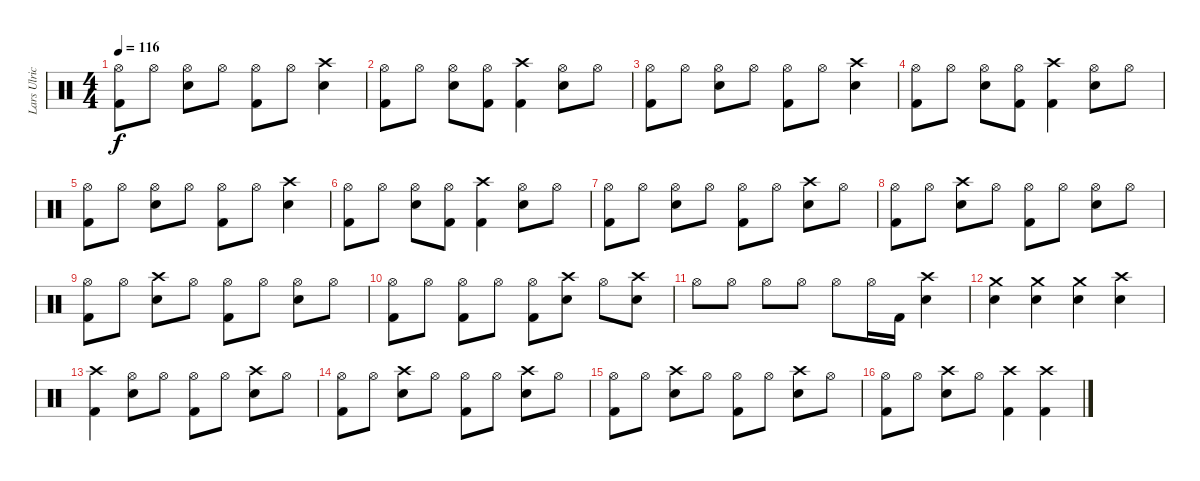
\track ("Lars Ulrich" "Lars Ulric") {instrument percussion}
\staff {score}
\articulation defaults
\ts (4 4)
\tempo 116
\clef neutral
\ks c
("Hi-Hat (open)" "Kick (hit) 2").8{dy f} "Hi-Hat (open)".8 ("Hi-Hat (open)" "Electric Snare (hit)").8 "Hi-Hat (open)".8 ("Hi-Hat (open)" "Kick (hit) 2").8 "Hi-Hat (open)".8 ("Crash high (hit)" "Electric Snare (hit)").4 |
("Hi-Hat (open)" "Kick (hit) 2").8 "Hi-Hat (open)".8 ("Hi-Hat (open)" "Electric Snare (hit)").8 ("Hi-Hat (open)" "Kick (hit) 2").8 ("Crash high (hit)" "Kick (hit) 2").4 ("Hi-Hat (open)" "Electric Snare (hit)").8 "Hi-Hat (open)".8 |
("Hi-Hat (open)" "Kick (hit) 2").8 "Hi-Hat (open)".8 ("Hi-Hat (open)" "Electric Snare (hit)").8 "Hi-Hat (open)".8 ("Hi-Hat (open)" "Kick (hit) 2").8 "Hi-Hat (open)".8 ("Crash high (hit)" "Electric Snare (hit)").4 |
("Hi-Hat (open)" "Kick (hit) 2").8 "Hi-Hat (open)".8 ("Hi-Hat (open)" "Electric Snare (hit)").8 ("Hi-Hat (open)" "Kick (hit) 2").8 ("Crash high (hit)" "Kick (hit) 2").4 ("Hi-Hat (open)" "Electric Snare (hit)").8 "Hi-Hat (open)".8 |
("Hi-Hat (open)" "Kick (hit) 2").8 "Hi-Hat (open)".8 ("Hi-Hat (open)" "Electric Snare (hit)").8 "Hi-Hat (open)".8 ("Hi-Hat (open)" "Kick (hit) 2").8 "Hi-Hat (open)".8 ("Crash high (hit)" "Electric Snare (hit)").4 |
("Hi-Hat (open)" "Kick (hit) 2").8 "Hi-Hat (open)".8 ("Hi-Hat (open)" "Electric Snare (hit)").8 ("Hi-Hat (open)" "Kick (hit) 2").8 ("Crash high (hit)" "Kick (hit) 2").4 ("Hi-Hat (open)" "Electric Snare (hit)").8 "Hi-Hat (open)".8 |
("Hi-Hat (open)" "Kick (hit) 2").8 "Hi-Hat (open)".8 ("Hi-Hat (open)" "Electric Snare (hit)").8 "Hi-Hat (open)".8 ("Hi-Hat (open)" "Kick (hit) 2").8 "Hi-Hat (open)".8 ("Crash high (hit)" "Electric Snare (hit)").8 "Hi-Hat (open)".8 |
("Hi-Hat (open)" "Kick (hit) 2").8 "Hi-Hat (open)".8 ("Crash high (hit)" "Electric Snare (hit)").8 "Hi-Hat (open)".8 ("Hi-Hat (open)" "Kick (hit) 2").8 "Hi-Hat (open)".8 ("Hi-Hat (open)" "Electric Snare (hit)").8 "Hi-Hat (open)".8 |
("Hi-Hat (open)" "Kick (hit) 2").8 "Hi-Hat (open)".8 ("Crash high (hit)" "Electric Snare (hit)").8 "Hi-Hat (open)".8 ("Hi-Hat (open)" "Kick (hit) 2").8 "Hi-Hat (open)".8 ("Hi-Hat (open)" "Electric Snare (hit)").8 "Hi-Hat (open)".8 |
("Hi-Hat (open)" "Kick (hit) 2").8 "Hi-Hat (open)".8 ("Hi-Hat (open)" "Kick (hit) 2").8 "Hi-Hat (open)".8 ("Hi-Hat (open)" "Kick (hit) 2").8 ("Crash high (hit)" "Electric Snare (hit)").8 "Hi-Hat (open)".8 ("Crash high (hit)" "Electric Snare (hit)").8 |
"Hi-Hat (open)".8 "Hi-Hat (open)".8 "Hi-Hat (open)".8 "Hi-Hat (open)".8 "Hi-Hat (open)".8 "Hi-Hat (open)".16 "Kick (hit) 2".16 ("Crash high (hit)" "Electric Snare (hit)").4 |
("Crash medium (hit)" "Electric Snare (hit)").4 ("Crash medium (hit)" "Electric Snare (hit)").4 ("Crash medium (hit)" "Electric Snare (hit)").4 ("Crash high (hit)" "Electric Snare (hit)").4 |
("Crash high (hit)" "Kick (hit) 2").4 ("Hi-Hat (open)" "Electric Snare (hit)").8 "Hi-Hat (open)".8 ("Hi-Hat (open)" "Kick (hit) 2").8 "Hi-Hat (open)".8 ("Crash high (hit)" "Electric Snare (hit)").8 "Hi-Hat (open)".8 |
("Hi-Hat (open)" "Kick (hit) 2").8 "Hi-Hat (open)".8 ("Crash high (hit)" "Electric Snare (hit)").8 "Hi-Hat (open)".8 ("Hi-Hat (open)" "Kick (hit) 2").8 "Hi-Hat (open)".8 ("Crash high (hit)" "Electric Snare (hit)").8 "Hi-Hat (open)".8 |
("Hi-Hat (open)" "Kick (hit) 2").8 "Hi-Hat (open)".8 ("Crash high (hit)" "Electric Snare (hit)").8 "Hi-Hat (open)".8 ("Hi-Hat (open)" "Kick (hit) 2").8 "Hi-Hat (open)".8 ("Crash high (hit)" "Electric Snare (hit)").8 "Hi-Hat (open)".8 |
("Hi-Hat (open)" "Kick (hit) 2").8 "Hi-Hat (open)".8 ("Crash high (hit)" "Electric Snare (hit)").8 "Hi-Hat (open)".8 ("Crash high (hit)" "Kick (hit) 2").4 ("Crash high (hit)" "Kick (hit) 2").4
